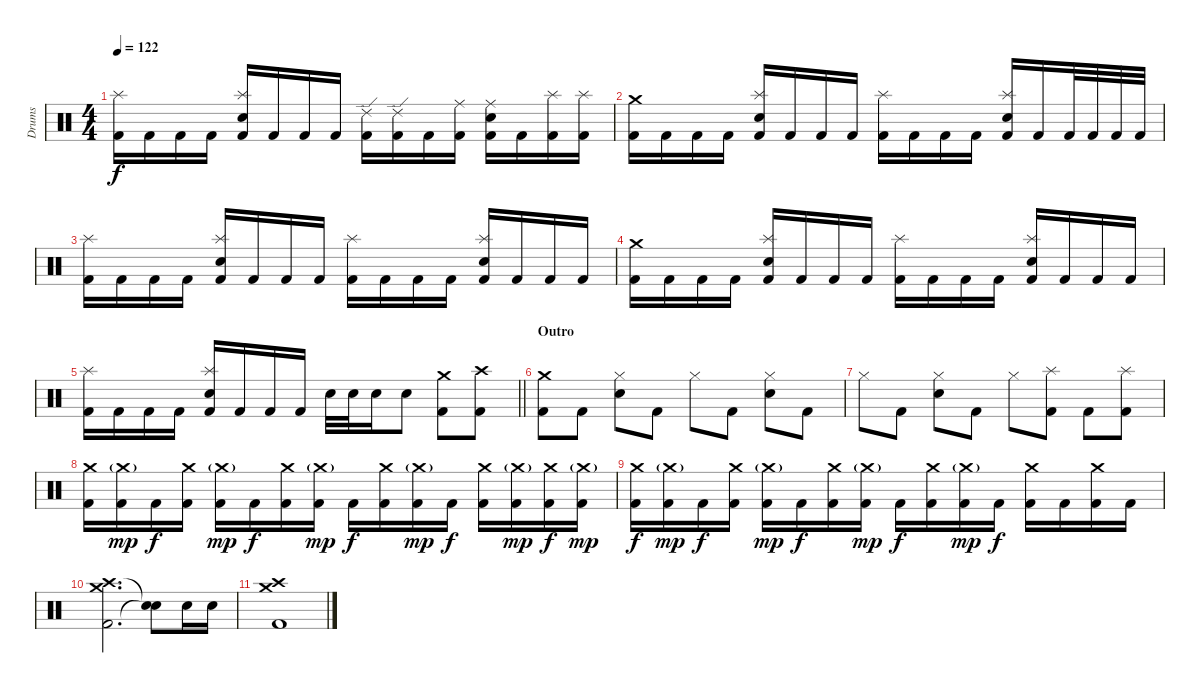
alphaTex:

\track ("Drums" "Drums") {instrument percussion}
\staff {score}
\articulation defaults
\ts (4 4)
\tempo 122
\clef neutral
\ks c
("Kick (hit) 2" "Splash (hit)").16{dy f} "Kick (hit) 2".16 "Kick (hit) 2".16 "Kick (hit) 2".16 ("Kick (hit) 2" "Snare (hit) 2" "Splash (hit)").16 "Kick (hit) 2".16 "Kick (hit) 2".16 "Kick (hit) 2".16 ("Kick (hit) 2" "Ride (edge) 2").16 ("Kick (hit) 2" "Ride (edge) 2").16 "Kick (hit) 2".16 ("Kick (hit) 2" "Ride (middle)").16 ("Kick (hit) 2" "Snare (hit) 2" "Ride (middle)").16 "Kick (hit) 2".16 ("Kick (hit) 2" "Splash (hit)").16 ("Kick (hit) 2" "Splash (hit)").16 |
("Kick (hit) 2" "Crash medium (hit)").16 "Kick (hit) 2".16 "Kick (hit) 2".16 "Kick (hit) 2".16 ("Kick (hit) 2" "Snare (hit) 2" "Splash (hit)").16 "Kick (hit) 2".16 "Kick (hit) 2".16 "Kick (hit) 2".16 ("Kick (hit) 2" "Splash (hit)").16 "Kick (hit) 2".16 "Kick (hit) 2".16 "Kick (hit) 2".16 ("Kick (hit) 2" "Snare (hit) 2" "Splash (hit)").16 "Kick (hit) 2".16 "Kick (hit) 2".32 "Kick (hit) 2".32 "Kick (hit) 2".32 "Kick (hit) 2".32 |
("Kick (hit) 2" "Splash (hit)").16 "Kick (hit) 2".16 "Kick (hit) 2".16 "Kick (hit) 2".16 ("Kick (hit) 2" "Snare (hit) 2" "Splash (hit)").16 "Kick (hit) 2".16 "Kick (hit) 2".16 "Kick (hit) 2".16 ("Kick (hit) 2" "Splash (hit)").16 "Kick (hit) 2".16 "Kick (hit) 2".16 "Kick (hit) 2".16 ("Kick (hit) 2" "Snare (hit) 2" "Splash (hit)").16 "Kick (hit) 2".16 "Kick (hit) 2".16 "Kick (hit) 2".16 |
("Kick (hit) 2" "Crash medium (hit)").16 "Kick (hit) 2".16 "Kick (hit) 2".16 "Kick (hit) 2".16 ("Kick (hit) 2" "Snare (hit) 2" "Splash (hit)").16 "Kick (hit) 2".16 "Kick (hit) 2".16 "Kick (hit) 2".16 ("Kick (hit) 2" "Splash (hit)").16 "Kick (hit) 2".16 "Kick (hit) 2".16 "Kick (hit) 2".16 ("Kick (hit) 2" "Snare (hit) 2" "Splash (hit)").16 "Kick (hit) 2".16 "Kick (hit) 2".16 "Kick (hit) 2".16 |
\barLineRight lightlight
("Kick (hit) 2" "Splash (hit)").16 "Kick (hit) 2".16 "Kick (hit) 2".16 "Kick (hit) 2".16 ("Kick (hit) 2" "Snare (hit) 2" "Splash (hit)").16 "Kick (hit) 2".16 "Kick (hit) 2".16 "Kick (hit) 2".16 "Snare (hit) 2".32 "Snare (hit) 2".32 "Snare (hit) 2".16 "Snare (hit) 2".8 ("Kick (hit) 2" "Crash medium (hit)").8 ("Kick (hit) 2" "Crash high (hit)").8 |
\section ("" "Outro")
("Kick (hit) 2" "Crash medium (hit)").8 "Kick (hit) 2".8 ("Snare (hit) 2" "Hi-Hat (closed)").8 "Kick (hit) 2".8 "Hi-Hat (closed)".8 "Kick (hit) 2".8 ("Snare (hit) 2" "Hi-Hat (closed)").8 "Kick (hit) 2".8 |
"Hi-Hat (closed)".8 "Kick (hit) 2".8 ("Snare (hit) 2" "Hi-Hat (closed)").8 "Kick (hit) 2".8 "Hi-Hat (closed)".8 ("Kick (hit) 2" "Splash (hit)").8 "Kick (hit) 2".8 ("Kick (hit) 2" "Splash (hit)").8 |
("Kick (hit) 2" "Crash medium (hit)").16 ("Kick (hit) 2" "Crash medium (hit)"{g}).16{dy mp} "Kick (hit) 2".16{dy f} ("Kick (hit) 2" "Crash medium (hit)").16 ("Kick (hit) 2" "Crash medium (hit)"{g}).16{dy mp} "Kick (hit) 2".16{dy f} ("Kick (hit) 2" "Crash medium (hit)").16 ("Kick (hit) 2" "Crash medium (hit)"{g}).16{dy mp} "Kick (hit) 2".16{dy f} ("Kick (hit) 2" "Crash medium (hit)").16 ("Kick (hit) 2" "Crash medium (hit)"{g}).16{dy mp} "Kick (hit) 2".16{dy f} ("Kick (hit) 2" "Crash medium (hit)").16 ("Kick (hit) 2" "Crash medium (hit)"{g}).16{dy mp} ("Kick (hit) 2" "Crash medium (hit)").16{dy f} ("Kick (hit) 2" "Crash medium (hit)"{g}).16{dy mp} |
("Kick (hit) 2" "Crash medium (hit)").16{dy f} ("Kick (hit) 2" "Crash medium (hit)"{g}).16{dy mp} "Kick (hit) 2".16{dy f} ("Kick (hit) 2" "Crash medium (hit)").16 ("Kick (hit) 2" "Crash medium (hit)"{g}).16{dy mp} "Kick (hit) 2".16{dy f} ("Kick (hit) 2" "Crash medium (hit)").16 ("Kick (hit) 2" "Crash medium (hit)"{g}).16{dy mp} "Kick (hit) 2".16{dy f} ("Kick (hit) 2" "Crash medium (hit)").16 ("Kick (hit) 2" "Crash medium (hit)"{g}).16{dy mp} "Kick (hit) 2".16{dy f} ("Kick (hit) 2" "Crash medium (hit)").16 "Kick (hit) 2".16 ("Kick (hit) 2" "Crash medium (hit)").16 "Kick (hit) 2".16 |
("Kick (hit) 2" "Crash high (hit)" "Crash medium (hit)").2{d} ("Snare (hit)"{t} "Snare (hit)"{t}).8 "Snare (hit) 2".16 "Snare (hit) 2".16 |
("Kick (hit) 2" "Crash high (hit)" "Crash medium (hit)").1
